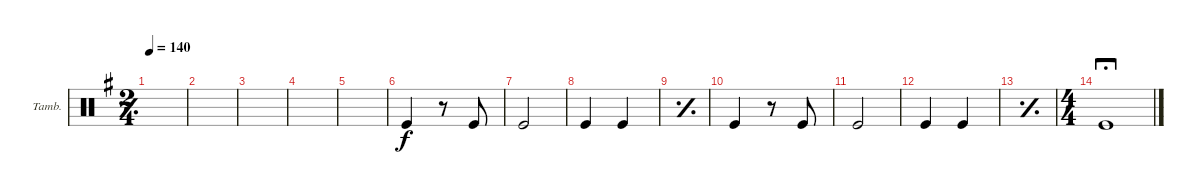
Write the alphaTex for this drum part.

\defaultSystemsLayout 4
\bracketExtendMode groupsimilarinstruments
\firstSystemTrackNameOrientation horizontal
\otherSystemsTrackNameOrientation horizontal
\track ("Tambourine" "Tamb.") {instrument percussion}
\staff {score}
\articulation defaults
\ts (2 4)
\tempo 140
\clef neutral
\simile simple
\ks g
|
|
|
|
|
\simile none "Kick (hit)".4
r.8 "Kick (hit)".8 |
"Kick (hit)".2 |
"Kick (hit)".4 "Kick (hit)".4 |
\simile simple
|
\simile none "Kick (hit)".4
r.8 "Kick (hit)".8 |
"Kick (hit)".2 |
"Kick (hit)".4 "Kick (hit)".4 |
\simile simple
|
\ts (4 4)
\simile none "Kick (hit)".1{fermata (long 1)}
